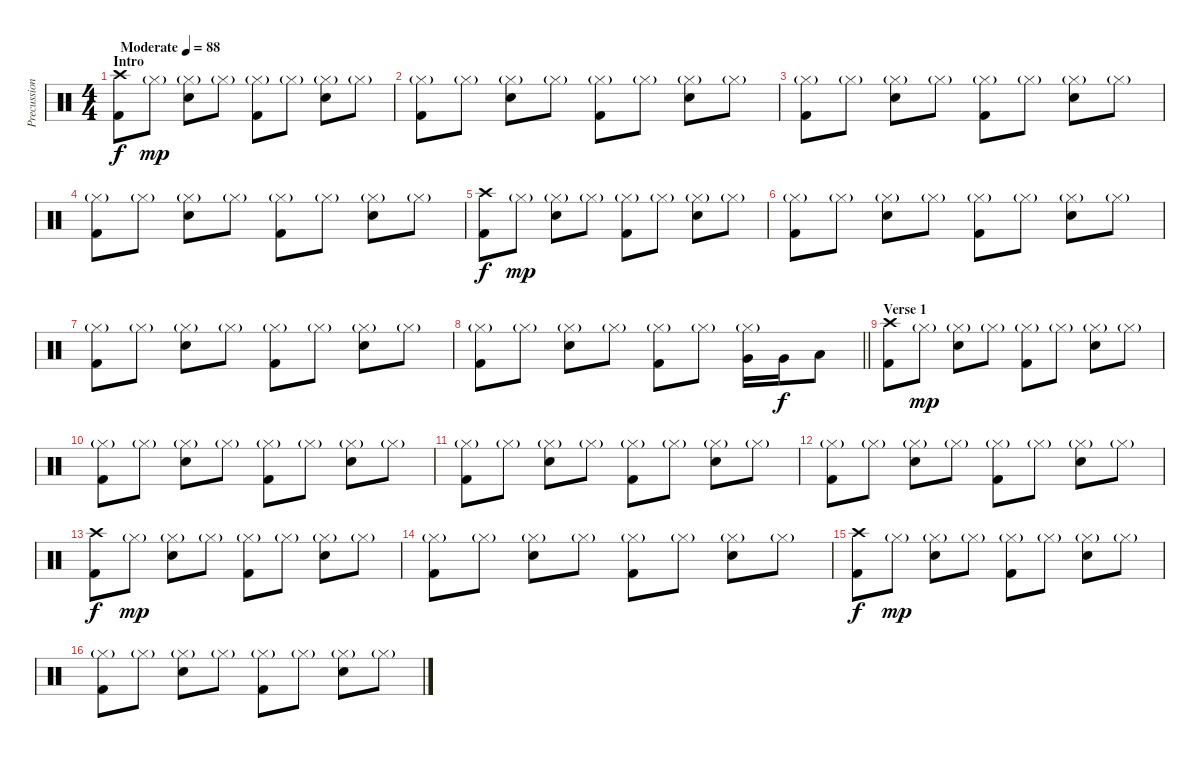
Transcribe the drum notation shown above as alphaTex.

\track ("Precussion" "Precussion") {instrument percussion}
\staff {score}
\articulation defaults
\ts (4 4)
\section ("" "Intro")
\tempo (88 "Moderate")
\clef neutral
\ks c
("Crash high (hit)" "Kick (hit) 2").8{dy f} "Hi-Hat (closed)"{g}.8{dy mp} ("Hi-Hat (closed)"{g} "Electric Snare (hit)").8 "Hi-Hat (closed)"{g}.8 ("Hi-Hat (closed)"{g} "Kick (hit) 2").8 "Hi-Hat (closed)"{g}.8 ("Hi-Hat (closed)"{g} "Electric Snare (hit)").8 "Hi-Hat (closed)"{g}.8 |
("Hi-Hat (closed)"{g} "Kick (hit) 2").8 "Hi-Hat (closed)"{g}.8 ("Hi-Hat (closed)"{g} "Electric Snare (hit)").8 "Hi-Hat (closed)"{g}.8 ("Hi-Hat (closed)"{g} "Kick (hit) 2").8 "Hi-Hat (closed)"{g}.8 ("Hi-Hat (closed)"{g} "Electric Snare (hit)").8 "Hi-Hat (closed)"{g}.8 |
("Hi-Hat (closed)"{g} "Kick (hit) 2").8 "Hi-Hat (closed)"{g}.8 ("Hi-Hat (closed)"{g} "Electric Snare (hit)").8 "Hi-Hat (closed)"{g}.8 ("Hi-Hat (closed)"{g} "Kick (hit) 2").8 "Hi-Hat (closed)"{g}.8 ("Hi-Hat (closed)"{g} "Electric Snare (hit)").8 "Hi-Hat (closed)"{g}.8 |
("Hi-Hat (closed)"{g} "Kick (hit) 2").8 "Hi-Hat (closed)"{g}.8 ("Hi-Hat (closed)"{g} "Electric Snare (hit)").8 "Hi-Hat (closed)"{g}.8 ("Hi-Hat (closed)"{g} "Kick (hit) 2").8 "Hi-Hat (closed)"{g}.8 ("Hi-Hat (closed)"{g} "Electric Snare (hit)").8 "Hi-Hat (closed)"{g}.8 |
("Crash high (hit)" "Kick (hit) 2").8{dy f} "Hi-Hat (closed)"{g}.8{dy mp} ("Hi-Hat (closed)"{g} "Electric Snare (hit)").8 "Hi-Hat (closed)"{g}.8 ("Hi-Hat (closed)"{g} "Kick (hit) 2").8 "Hi-Hat (closed)"{g}.8 ("Hi-Hat (closed)"{g} "Electric Snare (hit)").8 "Hi-Hat (closed)"{g}.8 |
("Hi-Hat (closed)"{g} "Kick (hit) 2").8 "Hi-Hat (closed)"{g}.8 ("Hi-Hat (closed)"{g} "Electric Snare (hit)").8 "Hi-Hat (closed)"{g}.8 ("Hi-Hat (closed)"{g} "Kick (hit) 2").8 "Hi-Hat (closed)"{g}.8 ("Hi-Hat (closed)"{g} "Electric Snare (hit)").8 "Hi-Hat (closed)"{g}.8 |
("Hi-Hat (closed)"{g} "Kick (hit) 2").8 "Hi-Hat (closed)"{g}.8 ("Hi-Hat (closed)"{g} "Electric Snare (hit)").8 "Hi-Hat (closed)"{g}.8 ("Hi-Hat (closed)"{g} "Kick (hit) 2").8 "Hi-Hat (closed)"{g}.8 ("Hi-Hat (closed)"{g} "Electric Snare (hit)").8 "Hi-Hat (closed)"{g}.8 |
\barLineRight lightlight
("Hi-Hat (closed)"{g} "Kick (hit) 2").8 "Hi-Hat (closed)"{g}.8 ("Hi-Hat (closed)"{g} "Electric Snare (hit)").8 "Hi-Hat (closed)"{g}.8 ("Hi-Hat (closed)"{g} "Kick (hit) 2").8 "Hi-Hat (closed)"{g}.8 ("Hi-Hat (closed)"{g} "Very Low Tom (hit)").16 "Very Low Tom (hit)".16{dy f} "Low Floor Tom (hit)".8 |
\section ("" "Verse 1")
("Crash high (hit)" "Kick (hit) 2").8 "Hi-Hat (closed)"{g}.8{dy mp} ("Hi-Hat (closed)"{g} "Electric Snare (hit)").8 "Hi-Hat (closed)"{g}.8 ("Hi-Hat (closed)"{g} "Kick (hit) 2").8 "Hi-Hat (closed)"{g}.8 ("Hi-Hat (closed)"{g} "Electric Snare (hit)").8 "Hi-Hat (closed)"{g}.8 |
("Hi-Hat (closed)"{g} "Kick (hit) 2").8 "Hi-Hat (closed)"{g}.8 ("Hi-Hat (closed)"{g} "Electric Snare (hit)").8 "Hi-Hat (closed)"{g}.8 ("Hi-Hat (closed)"{g} "Kick (hit) 2").8 "Hi-Hat (closed)"{g}.8 ("Hi-Hat (closed)"{g} "Electric Snare (hit)").8 "Hi-Hat (closed)"{g}.8 |
("Hi-Hat (closed)"{g} "Kick (hit) 2").8 "Hi-Hat (closed)"{g}.8 ("Hi-Hat (closed)"{g} "Electric Snare (hit)").8 "Hi-Hat (closed)"{g}.8 ("Hi-Hat (closed)"{g} "Kick (hit) 2").8 "Hi-Hat (closed)"{g}.8 ("Hi-Hat (closed)"{g} "Electric Snare (hit)").8 "Hi-Hat (closed)"{g}.8 |
("Hi-Hat (closed)"{g} "Kick (hit) 2").8 "Hi-Hat (closed)"{g}.8 ("Hi-Hat (closed)"{g} "Electric Snare (hit)").8 "Hi-Hat (closed)"{g}.8 ("Hi-Hat (closed)"{g} "Kick (hit) 2").8 "Hi-Hat (closed)"{g}.8 ("Hi-Hat (closed)"{g} "Electric Snare (hit)").8 "Hi-Hat (closed)"{g}.8 |
("Crash high (hit)" "Kick (hit) 2").8{dy f} "Hi-Hat (closed)"{g}.8{dy mp} ("Hi-Hat (closed)"{g} "Electric Snare (hit)").8 "Hi-Hat (closed)"{g}.8 ("Hi-Hat (closed)"{g} "Kick (hit) 2").8 "Hi-Hat (closed)"{g}.8 ("Hi-Hat (closed)"{g} "Electric Snare (hit)").8 "Hi-Hat (closed)"{g}.8 |
("Hi-Hat (closed)"{g} "Kick (hit) 2").8 "Hi-Hat (closed)"{g}.8 ("Hi-Hat (closed)"{g} "Electric Snare (hit)").8 "Hi-Hat (closed)"{g}.8 ("Hi-Hat (closed)"{g} "Kick (hit) 2").8 "Hi-Hat (closed)"{g}.8 ("Hi-Hat (closed)"{g} "Electric Snare (hit)").8 "Hi-Hat (closed)"{g}.8 |
("Crash high (hit)" "Kick (hit) 2").8{dy f} "Hi-Hat (closed)"{g}.8{dy mp} ("Hi-Hat (closed)"{g} "Electric Snare (hit)").8 "Hi-Hat (closed)"{g}.8 ("Hi-Hat (closed)"{g} "Kick (hit) 2").8 "Hi-Hat (closed)"{g}.8 ("Hi-Hat (closed)"{g} "Electric Snare (hit)").8 "Hi-Hat (closed)"{g}.8 |
("Hi-Hat (closed)"{g} "Kick (hit) 2").8 "Hi-Hat (closed)"{g}.8 ("Hi-Hat (closed)"{g} "Electric Snare (hit)").8 "Hi-Hat (closed)"{g}.8 ("Hi-Hat (closed)"{g} "Kick (hit) 2").8 "Hi-Hat (closed)"{g}.8 ("Hi-Hat (closed)"{g} "Electric Snare (hit)").8 "Hi-Hat (closed)"{g}.8
